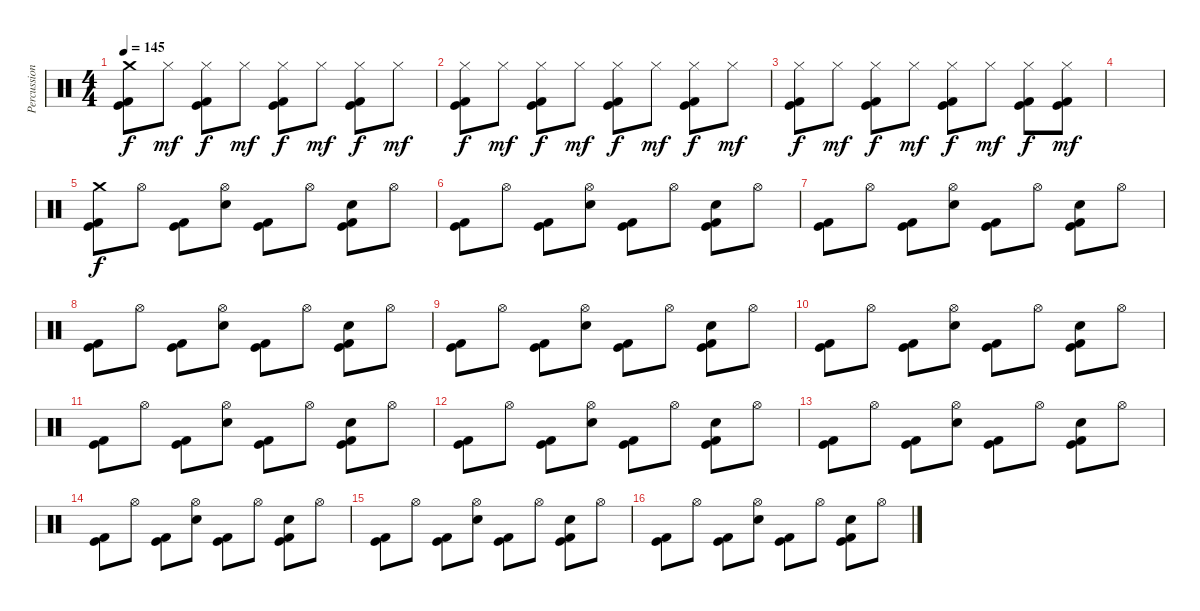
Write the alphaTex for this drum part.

\track ("Percussion" "Percussion") {instrument percussion}
\staff {score}
\articulation defaults
\ts (4 4)
\tempo 145
\clef neutral
\ks c
("Crash medium (hit)" "Kick (hit)" "Kick (hit) 2").8{dy f} "Hi-Hat (closed)".8{dy mf} ("Hi-Hat (closed)" "Kick (hit)" "Kick (hit) 2").8{dy f} "Hi-Hat (closed)".8{dy mf} ("Hi-Hat (closed)" "Kick (hit)" "Kick (hit) 2").8{dy f} "Hi-Hat (closed)".8{dy mf} ("Hi-Hat (closed)" "Kick (hit)" "Kick (hit) 2").8{dy f} "Hi-Hat (closed)".8{dy mf} |
("Hi-Hat (closed)" "Kick (hit)" "Kick (hit) 2").8{dy f} "Hi-Hat (closed)".8{dy mf} ("Hi-Hat (closed)" "Kick (hit)" "Kick (hit) 2").8{dy f} "Hi-Hat (closed)".8{dy mf} ("Hi-Hat (closed)" "Kick (hit)" "Kick (hit) 2").8{dy f} "Hi-Hat (closed)".8{dy mf} ("Hi-Hat (closed)" "Kick (hit)" "Kick (hit) 2").8{dy f} "Hi-Hat (closed)".8{dy mf} |
("Hi-Hat (closed)" "Kick (hit)" "Kick (hit) 2").8{dy f} "Hi-Hat (closed)".8{dy mf} ("Hi-Hat (closed)" "Kick (hit)" "Kick (hit) 2").8{dy f} "Hi-Hat (closed)".8{dy mf} ("Hi-Hat (closed)" "Kick (hit)" "Kick (hit) 2").8{dy f} "Hi-Hat (closed)".8{dy mf} ("Hi-Hat (closed)" "Kick (hit)" "Kick (hit) 2").8{dy f} ("Hi-Hat (closed)" "Kick (hit)" "Kick (hit) 2").8{dy mf} |
|
("Crash medium (hit)" "Kick (hit)" "Kick (hit) 2").8{dy f} "Hi-Hat (open)".8 ("Kick (hit)" "Kick (hit) 2").8 ("Hi-Hat (open)" "Snare (hit) 2").8 ("Kick (hit)" "Kick (hit) 2").8 "Hi-Hat (open)".8 ("Electric Snare (hit)" "Kick (hit)" "Kick (hit) 2").8 "Hi-Hat (open)".8 |
("Kick (hit)" "Kick (hit) 2").8 "Hi-Hat (open)".8 ("Kick (hit)" "Kick (hit) 2").8 ("Hi-Hat (open)" "Snare (hit) 2").8 ("Kick (hit)" "Kick (hit) 2").8 "Hi-Hat (open)".8 ("Electric Snare (hit)" "Kick (hit)" "Kick (hit) 2").8 "Hi-Hat (open)".8 |
("Kick (hit)" "Kick (hit) 2").8 "Hi-Hat (open)".8 ("Kick (hit)" "Kick (hit) 2").8 ("Hi-Hat (open)" "Snare (hit) 2").8 ("Kick (hit)" "Kick (hit) 2").8 "Hi-Hat (open)".8 ("Electric Snare (hit)" "Kick (hit)" "Kick (hit) 2").8 "Hi-Hat (open)".8 |
("Kick (hit)" "Kick (hit) 2").8 "Hi-Hat (open)".8 ("Kick (hit)" "Kick (hit) 2").8 ("Hi-Hat (open)" "Snare (hit) 2").8 ("Kick (hit)" "Kick (hit) 2").8 "Hi-Hat (open)".8 ("Electric Snare (hit)" "Kick (hit)" "Kick (hit) 2").8 "Hi-Hat (open)".8 |
("Kick (hit)" "Kick (hit) 2").8 "Hi-Hat (open)".8 ("Kick (hit)" "Kick (hit) 2").8 ("Hi-Hat (open)" "Snare (hit) 2").8 ("Kick (hit)" "Kick (hit) 2").8 "Hi-Hat (open)".8 ("Electric Snare (hit)" "Kick (hit)" "Kick (hit) 2").8 "Hi-Hat (open)".8 |
("Kick (hit)" "Kick (hit) 2").8 "Hi-Hat (open)".8 ("Kick (hit)" "Kick (hit) 2").8 ("Hi-Hat (open)" "Snare (hit) 2").8 ("Kick (hit)" "Kick (hit) 2").8 "Hi-Hat (open)".8 ("Electric Snare (hit)" "Kick (hit)" "Kick (hit) 2").8 "Hi-Hat (open)".8 |
("Kick (hit)" "Kick (hit) 2").8 "Hi-Hat (open)".8 ("Kick (hit)" "Kick (hit) 2").8 ("Hi-Hat (open)" "Snare (hit) 2").8 ("Kick (hit)" "Kick (hit) 2").8 "Hi-Hat (open)".8 ("Electric Snare (hit)" "Kick (hit)" "Kick (hit) 2").8 "Hi-Hat (open)".8 |
("Kick (hit)" "Kick (hit) 2").8 "Hi-Hat (open)".8 ("Kick (hit)" "Kick (hit) 2").8 ("Hi-Hat (open)" "Snare (hit) 2").8 ("Kick (hit)" "Kick (hit) 2").8 "Hi-Hat (open)".8 ("Electric Snare (hit)" "Kick (hit)" "Kick (hit) 2").8 "Hi-Hat (open)".8 |
("Kick (hit)" "Kick (hit) 2").8 "Hi-Hat (open)".8 ("Kick (hit)" "Kick (hit) 2").8 ("Hi-Hat (open)" "Snare (hit) 2").8 ("Kick (hit)" "Kick (hit) 2").8 "Hi-Hat (open)".8 ("Electric Snare (hit)" "Kick (hit)" "Kick (hit) 2").8 "Hi-Hat (open)".8 |
("Kick (hit)" "Kick (hit) 2").8 "Hi-Hat (open)".8 ("Kick (hit)" "Kick (hit) 2").8 ("Hi-Hat (open)" "Snare (hit) 2").8 ("Kick (hit)" "Kick (hit) 2").8 "Hi-Hat (open)".8 ("Electric Snare (hit)" "Kick (hit)" "Kick (hit) 2").8 "Hi-Hat (open)".8 |
("Kick (hit)" "Kick (hit) 2").8 "Hi-Hat (open)".8 ("Kick (hit)" "Kick (hit) 2").8 ("Hi-Hat (open)" "Snare (hit) 2").8 ("Kick (hit)" "Kick (hit) 2").8 "Hi-Hat (open)".8 ("Electric Snare (hit)" "Kick (hit)" "Kick (hit) 2").8 "Hi-Hat (open)".8 |
("Kick (hit)" "Kick (hit) 2").8 "Hi-Hat (open)".8 ("Kick (hit)" "Kick (hit) 2").8 ("Hi-Hat (open)" "Snare (hit) 2").8 ("Kick (hit)" "Kick (hit) 2").8 "Hi-Hat (open)".8 ("Electric Snare (hit)" "Kick (hit)" "Kick (hit) 2").8 "Hi-Hat (open)".8
